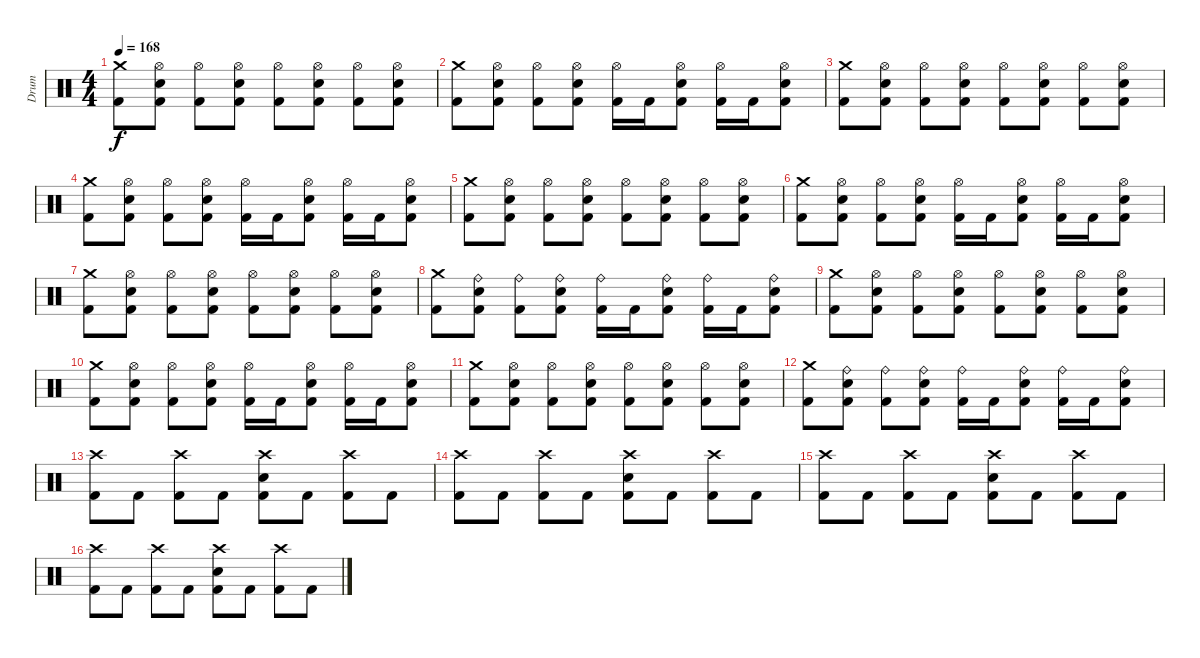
\track ("Drum" "Drum") {instrument percussion}
\staff {score}
\articulation defaults
\ts (4 4)
\tempo 168
\clef neutral
\ks c
("Crash medium (hit)" "Kick (hit) 2").8{dy f} ("Hi-Hat (open)" "Electric Snare (hit)" "Kick (hit) 2").8 ("Hi-Hat (open)" "Kick (hit) 2").8 ("Hi-Hat (open)" "Electric Snare (hit)" "Kick (hit) 2").8 ("Hi-Hat (open)" "Kick (hit) 2").8 ("Hi-Hat (open)" "Electric Snare (hit)" "Kick (hit) 2").8 ("Hi-Hat (open)" "Kick (hit) 2").8 ("Hi-Hat (open)" "Electric Snare (hit)" "Kick (hit) 2").8 |
("Crash medium (hit)" "Kick (hit) 2").8 ("Hi-Hat (open)" "Electric Snare (hit)" "Kick (hit) 2").8 ("Hi-Hat (open)" "Kick (hit) 2").8 ("Hi-Hat (open)" "Electric Snare (hit)" "Kick (hit) 2").8 ("Hi-Hat (open)" "Kick (hit) 2").16 "Kick (hit) 2".16 ("Kick (hit) 2" "Hi-Hat (open)" "Electric Snare (hit)").8 ("Hi-Hat (open)" "Kick (hit) 2").16 "Kick (hit) 2".16 ("Kick (hit) 2" "Hi-Hat (open)" "Electric Snare (hit)").8 |
("Crash medium (hit)" "Kick (hit) 2").8 ("Hi-Hat (open)" "Electric Snare (hit)" "Kick (hit) 2").8 ("Hi-Hat (open)" "Kick (hit) 2").8 ("Hi-Hat (open)" "Electric Snare (hit)" "Kick (hit) 2").8 ("Hi-Hat (open)" "Kick (hit) 2").8 ("Hi-Hat (open)" "Electric Snare (hit)" "Kick (hit) 2").8 ("Hi-Hat (open)" "Kick (hit) 2").8 ("Hi-Hat (open)" "Electric Snare (hit)" "Kick (hit) 2").8 |
("Crash medium (hit)" "Kick (hit) 2").8 ("Hi-Hat (open)" "Electric Snare (hit)" "Kick (hit) 2").8 ("Hi-Hat (open)" "Kick (hit) 2").8 ("Hi-Hat (open)" "Electric Snare (hit)" "Kick (hit) 2").8 ("Hi-Hat (open)" "Kick (hit) 2").16 "Kick (hit) 2".16 ("Kick (hit) 2" "Hi-Hat (open)" "Electric Snare (hit)").8 ("Hi-Hat (open)" "Kick (hit) 2").16 "Kick (hit) 2".16 ("Kick (hit) 2" "Hi-Hat (open)" "Electric Snare (hit)").8 |
("Crash medium (hit)" "Kick (hit) 2").8 ("Hi-Hat (open)" "Electric Snare (hit)" "Kick (hit) 2").8 ("Hi-Hat (open)" "Kick (hit) 2").8 ("Hi-Hat (open)" "Electric Snare (hit)" "Kick (hit) 2").8 ("Hi-Hat (open)" "Kick (hit) 2").8 ("Hi-Hat (open)" "Electric Snare (hit)" "Kick (hit) 2").8 ("Hi-Hat (open)" "Kick (hit) 2").8 ("Hi-Hat (open)" "Electric Snare (hit)" "Kick (hit) 2").8 |
("Crash medium (hit)" "Kick (hit) 2").8 ("Hi-Hat (open)" "Electric Snare (hit)" "Kick (hit) 2").8 ("Hi-Hat (open)" "Kick (hit) 2").8 ("Hi-Hat (open)" "Electric Snare (hit)" "Kick (hit) 2").8 ("Hi-Hat (open)" "Kick (hit) 2").16 "Kick (hit) 2".16 ("Kick (hit) 2" "Hi-Hat (open)" "Electric Snare (hit)").8 ("Hi-Hat (open)" "Kick (hit) 2").16 "Kick (hit) 2".16 ("Kick (hit) 2" "Hi-Hat (open)" "Electric Snare (hit)").8 |
("Crash medium (hit)" "Kick (hit) 2").8 ("Hi-Hat (open)" "Electric Snare (hit)" "Kick (hit) 2").8 ("Hi-Hat (open)" "Kick (hit) 2").8 ("Hi-Hat (open)" "Electric Snare (hit)" "Kick (hit) 2").8 ("Hi-Hat (open)" "Kick (hit) 2").8 ("Hi-Hat (open)" "Electric Snare (hit)" "Kick (hit) 2").8 ("Hi-Hat (open)" "Kick (hit) 2").8 ("Hi-Hat (open)" "Electric Snare (hit)" "Kick (hit) 2").8 |
("Crash medium (hit)" "Kick (hit) 2").8 ("Ride (bell)" "Electric Snare (hit)" "Kick (hit) 2").8 ("Ride (bell)" "Kick (hit) 2").8 ("Ride (bell)" "Electric Snare (hit)" "Kick (hit) 2").8 ("Ride (bell)" "Kick (hit) 2").16 "Kick (hit) 2".16 ("Kick (hit) 2" "Ride (bell)" "Electric Snare (hit)").8 ("Ride (bell)" "Kick (hit) 2").16 "Kick (hit) 2".16 ("Kick (hit) 2" "Ride (bell)" "Electric Snare (hit)").8 |
("Crash medium (hit)" "Kick (hit) 2").8 ("Hi-Hat (open)" "Electric Snare (hit)" "Kick (hit) 2").8 ("Hi-Hat (open)" "Kick (hit) 2").8 ("Hi-Hat (open)" "Electric Snare (hit)" "Kick (hit) 2").8 ("Hi-Hat (open)" "Kick (hit) 2").8 ("Hi-Hat (open)" "Electric Snare (hit)" "Kick (hit) 2").8 ("Hi-Hat (open)" "Kick (hit) 2").8 ("Hi-Hat (open)" "Electric Snare (hit)" "Kick (hit) 2").8 |
("Crash medium (hit)" "Kick (hit) 2").8 ("Hi-Hat (open)" "Electric Snare (hit)" "Kick (hit) 2").8 ("Hi-Hat (open)" "Kick (hit) 2").8 ("Hi-Hat (open)" "Electric Snare (hit)" "Kick (hit) 2").8 ("Hi-Hat (open)" "Kick (hit) 2").16 "Kick (hit) 2".16 ("Kick (hit) 2" "Hi-Hat (open)" "Electric Snare (hit)").8 ("Hi-Hat (open)" "Kick (hit) 2").16 "Kick (hit) 2".16 ("Kick (hit) 2" "Hi-Hat (open)" "Electric Snare (hit)").8 |
("Crash medium (hit)" "Kick (hit) 2").8 ("Hi-Hat (open)" "Electric Snare (hit)" "Kick (hit) 2").8 ("Hi-Hat (open)" "Kick (hit) 2").8 ("Hi-Hat (open)" "Electric Snare (hit)" "Kick (hit) 2").8 ("Hi-Hat (open)" "Kick (hit) 2").8 ("Hi-Hat (open)" "Electric Snare (hit)" "Kick (hit) 2").8 ("Hi-Hat (open)" "Kick (hit) 2").8 ("Hi-Hat (open)" "Electric Snare (hit)" "Kick (hit) 2").8 |
("Crash medium (hit)" "Kick (hit) 2").8 ("Ride (bell)" "Electric Snare (hit)" "Kick (hit) 2").8 ("Ride (bell)" "Kick (hit) 2").8 ("Ride (bell)" "Electric Snare (hit)" "Kick (hit) 2").8 ("Ride (bell)" "Kick (hit) 2").16 "Kick (hit) 2".16 ("Kick (hit) 2" "Ride (bell)" "Electric Snare (hit)").8 ("Ride (bell)" "Kick (hit) 2").16 "Kick (hit) 2".16 ("Kick (hit) 2" "Ride (bell)" "Electric Snare (hit)").8 |
("Crash high (hit)" "Kick (hit) 2").8 "Kick (hit) 2".8 ("Kick (hit) 2" "Crash high (hit)").8 "Kick (hit) 2".8 ("Crash high (hit)" "Kick (hit) 2" "Electric Snare (hit)").8 "Kick (hit) 2".8 ("Kick (hit) 2" "Crash high (hit)").8 "Kick (hit) 2".8 |
("Crash high (hit)" "Kick (hit) 2").8 "Kick (hit) 2".8 ("Kick (hit) 2" "Crash high (hit)").8 "Kick (hit) 2".8 ("Crash high (hit)" "Kick (hit) 2" "Electric Snare (hit)").8 "Kick (hit) 2".8 ("Kick (hit) 2" "Crash high (hit)").8 "Kick (hit) 2".8 |
("Crash high (hit)" "Kick (hit) 2").8 "Kick (hit) 2".8 ("Kick (hit) 2" "Crash high (hit)").8 "Kick (hit) 2".8 ("Crash high (hit)" "Kick (hit) 2" "Electric Snare (hit)").8 "Kick (hit) 2".8 ("Kick (hit) 2" "Crash high (hit)").8 "Kick (hit) 2".8 |
("Crash high (hit)" "Kick (hit) 2").8 "Kick (hit) 2".8 ("Kick (hit) 2" "Crash high (hit)").8 "Kick (hit) 2".8 ("Crash high (hit)" "Kick (hit) 2" "Electric Snare (hit)").8 "Kick (hit) 2".8 ("Kick (hit) 2" "Crash high (hit)").8 "Kick (hit) 2".8
